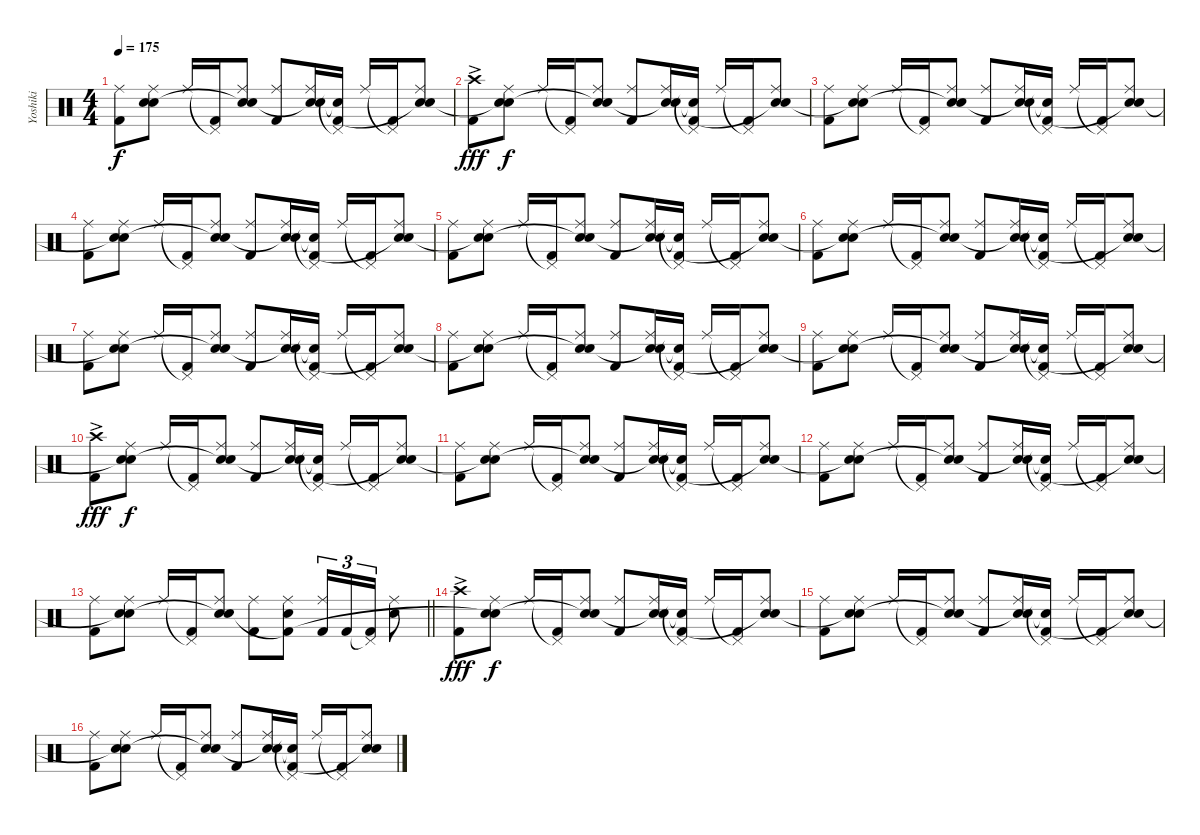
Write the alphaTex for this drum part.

\track ("Yoshiki" "Yoshiki") {instrument percussion}
\staff {score}
\articulation defaults
\ts (4 4)
\tempo 175
\clef neutral
\ks c
("Ride (middle)" "Kick (hit) 2").8{dy f} ("Ride (middle)" "Snare (hit) 2" "Snare (hit)"{t}).8 "Ride (middle)".16 ("Pedal Hi-Hat (hit)"{t} "Kick (hit) 2").16 ("Ride (middle)" "Snare (hit) 2" "Snare (hit)"{t}).8 ("Ride (middle)" "Kick (hit) 2").8 ("Ride (middle)" "Snare (hit) 2" "Snare (hit)"{t}).16 ("Pedal Hi-Hat (hit)"{t} "Snare (hit) 2"{t} "Kick (hit) 2").16 "Ride (middle)".16 ("Pedal Hi-Hat (hit)"{t} "Kick (hit) 2").16 ("Ride (middle)" "Snare (hit) 2" "Snare (hit)"{t}).8 |
("Crash high (hit)"{ac} "Kick (hit) 2"{ac}).8{dy fff} ("Ride (middle)" "Snare (hit) 2" "Snare (hit)"{t}).8{dy f} "Ride (middle)".16 ("Pedal Hi-Hat (hit)"{t} "Kick (hit) 2").16 ("Ride (middle)" "Snare (hit) 2" "Snare (hit)"{t}).8 ("Ride (middle)" "Kick (hit) 2").8 ("Ride (middle)" "Snare (hit) 2" "Snare (hit)"{t}).16 ("Pedal Hi-Hat (hit)"{t} "Snare (hit) 2"{t} "Kick (hit) 2").16 "Ride (middle)".16 ("Pedal Hi-Hat (hit)"{t} "Kick (hit) 2").16 ("Ride (middle)" "Snare (hit) 2" "Snare (hit)"{t}).8 |
("Ride (middle)" "Kick (hit) 2").8 ("Ride (middle)" "Snare (hit) 2" "Snare (hit)"{t}).8 "Ride (middle)".16 ("Pedal Hi-Hat (hit)"{t} "Kick (hit) 2").16 ("Ride (middle)" "Snare (hit) 2" "Snare (hit)"{t}).8 ("Ride (middle)" "Kick (hit) 2").8 ("Ride (middle)" "Snare (hit) 2" "Snare (hit)"{t}).16 ("Pedal Hi-Hat (hit)"{t} "Snare (hit) 2"{t} "Kick (hit) 2").16 "Ride (middle)".16 ("Pedal Hi-Hat (hit)"{t} "Kick (hit) 2").16 ("Ride (middle)" "Snare (hit) 2" "Snare (hit)"{t}).8 |
("Ride (middle)" "Kick (hit) 2").8 ("Ride (middle)" "Snare (hit) 2" "Snare (hit)"{t}).8 "Ride (middle)".16 ("Pedal Hi-Hat (hit)"{t} "Kick (hit) 2").16 ("Ride (middle)" "Snare (hit) 2" "Snare (hit)"{t}).8 ("Ride (middle)" "Kick (hit) 2").8 ("Ride (middle)" "Snare (hit) 2" "Snare (hit)"{t}).16 ("Pedal Hi-Hat (hit)"{t} "Snare (hit) 2"{t} "Kick (hit) 2").16 "Ride (middle)".16 ("Pedal Hi-Hat (hit)"{t} "Kick (hit) 2").16 ("Ride (middle)" "Snare (hit) 2" "Snare (hit)"{t}).8 |
("Ride (middle)" "Kick (hit) 2").8 ("Ride (middle)" "Snare (hit) 2" "Snare (hit)"{t}).8 "Ride (middle)".16 ("Pedal Hi-Hat (hit)"{t} "Kick (hit) 2").16 ("Ride (middle)" "Snare (hit) 2" "Snare (hit)"{t}).8 ("Ride (middle)" "Kick (hit) 2").8 ("Ride (middle)" "Snare (hit) 2" "Snare (hit)"{t}).16 ("Pedal Hi-Hat (hit)"{t} "Snare (hit) 2"{t} "Kick (hit) 2").16 "Ride (middle)".16 ("Pedal Hi-Hat (hit)"{t} "Kick (hit) 2").16 ("Ride (middle)" "Snare (hit) 2" "Snare (hit)"{t}).8 |
("Ride (middle)" "Kick (hit) 2").8 ("Ride (middle)" "Snare (hit) 2" "Snare (hit)"{t}).8 "Ride (middle)".16 ("Pedal Hi-Hat (hit)"{t} "Kick (hit) 2").16 ("Ride (middle)" "Snare (hit) 2" "Snare (hit)"{t}).8 ("Ride (middle)" "Kick (hit) 2").8 ("Ride (middle)" "Snare (hit) 2" "Snare (hit)"{t}).16 ("Pedal Hi-Hat (hit)"{t} "Snare (hit) 2"{t} "Kick (hit) 2").16 "Ride (middle)".16 ("Pedal Hi-Hat (hit)"{t} "Kick (hit) 2").16 ("Ride (middle)" "Snare (hit) 2" "Snare (hit)"{t}).8 |
("Ride (middle)" "Kick (hit) 2").8 ("Ride (middle)" "Snare (hit) 2" "Snare (hit)"{t}).8 "Ride (middle)".16 ("Pedal Hi-Hat (hit)"{t} "Kick (hit) 2").16 ("Ride (middle)" "Snare (hit) 2" "Snare (hit)"{t}).8 ("Ride (middle)" "Kick (hit) 2").8 ("Ride (middle)" "Snare (hit) 2" "Snare (hit)"{t}).16 ("Pedal Hi-Hat (hit)"{t} "Snare (hit) 2"{t} "Kick (hit) 2").16 "Ride (middle)".16 ("Pedal Hi-Hat (hit)"{t} "Kick (hit) 2").16 ("Ride (middle)" "Snare (hit) 2" "Snare (hit)"{t}).8 |
("Ride (middle)" "Kick (hit) 2").8 ("Ride (middle)" "Snare (hit) 2" "Snare (hit)"{t}).8 "Ride (middle)".16 ("Pedal Hi-Hat (hit)"{t} "Kick (hit) 2").16 ("Ride (middle)" "Snare (hit) 2" "Snare (hit)"{t}).8 ("Ride (middle)" "Kick (hit) 2").8 ("Ride (middle)" "Snare (hit) 2" "Snare (hit)"{t}).16 ("Pedal Hi-Hat (hit)"{t} "Snare (hit) 2"{t} "Kick (hit) 2").16 "Ride (middle)".16 ("Pedal Hi-Hat (hit)"{t} "Kick (hit) 2").16 ("Ride (middle)" "Snare (hit) 2" "Snare (hit)"{t}).8 |
("Ride (middle)" "Kick (hit) 2").8 ("Ride (middle)" "Snare (hit) 2" "Snare (hit)"{t}).8 "Ride (middle)".16 ("Pedal Hi-Hat (hit)"{t} "Kick (hit) 2").16 ("Ride (middle)" "Snare (hit) 2" "Snare (hit)"{t}).8 ("Ride (middle)" "Kick (hit) 2").8 ("Ride (middle)" "Snare (hit) 2" "Snare (hit)"{t}).16 ("Pedal Hi-Hat (hit)"{t} "Snare (hit) 2"{t} "Kick (hit) 2").16 "Ride (middle)".16 ("Pedal Hi-Hat (hit)"{t} "Kick (hit) 2").16 ("Ride (middle)" "Snare (hit) 2" "Snare (hit)"{t}).8 |
("Crash high (hit)"{ac} "Kick (hit) 2"{ac}).8{dy fff} ("Ride (middle)" "Snare (hit) 2" "Snare (hit)"{t}).8{dy f} "Ride (middle)".16 ("Pedal Hi-Hat (hit)"{t} "Kick (hit) 2").16 ("Ride (middle)" "Snare (hit) 2" "Snare (hit)"{t}).8 ("Ride (middle)" "Kick (hit) 2").8 ("Ride (middle)" "Snare (hit) 2" "Snare (hit)"{t}).16 ("Pedal Hi-Hat (hit)"{t} "Snare (hit) 2"{t} "Kick (hit) 2").16 "Ride (middle)".16 ("Pedal Hi-Hat (hit)"{t} "Kick (hit) 2").16 ("Ride (middle)" "Snare (hit) 2" "Snare (hit)"{t}).8 |
("Ride (middle)" "Kick (hit) 2").8 ("Ride (middle)" "Snare (hit) 2" "Snare (hit)"{t}).8 "Ride (middle)".16 ("Pedal Hi-Hat (hit)"{t} "Kick (hit) 2").16 ("Ride (middle)" "Snare (hit) 2" "Snare (hit)"{t}).8 ("Ride (middle)" "Kick (hit) 2").8 ("Ride (middle)" "Snare (hit) 2" "Snare (hit)"{t}).16 ("Pedal Hi-Hat (hit)"{t} "Snare (hit) 2"{t} "Kick (hit) 2").16 "Ride (middle)".16 ("Pedal Hi-Hat (hit)"{t} "Kick (hit) 2").16 ("Ride (middle)" "Snare (hit) 2" "Snare (hit)"{t}).8 |
("Ride (middle)" "Kick (hit) 2").8 ("Ride (middle)" "Snare (hit) 2" "Snare (hit)"{t}).8 "Ride (middle)".16 ("Pedal Hi-Hat (hit)"{t} "Kick (hit) 2").16 ("Ride (middle)" "Snare (hit) 2" "Snare (hit)"{t}).8 ("Ride (middle)" "Kick (hit) 2").8 ("Ride (middle)" "Snare (hit) 2" "Snare (hit)"{t}).16 ("Pedal Hi-Hat (hit)"{t} "Snare (hit) 2"{t} "Kick (hit) 2").16 "Ride (middle)".16 ("Pedal Hi-Hat (hit)"{t} "Kick (hit) 2").16 ("Ride (middle)" "Snare (hit) 2" "Snare (hit)"{t}).8 |
\barLineRight lightlight
("Ride (middle)" "Kick (hit) 2").8 ("Ride (middle)" "Snare (hit) 2" "Snare (hit)"{t}).8 "Ride (middle)".16 ("Pedal Hi-Hat (hit)"{t} "Kick (hit) 2").16 ("Ride (middle)" "Snare (hit) 2" "Snare (hit)"{t}).8 ("Ride (middle)" "Kick (hit) 2").8 ("Ride (middle)" "Snare (hit) 2" "Kick (hit) 2"{t}).8 ("Ride (middle)" "Kick (hit) 2").16{tu (3 2)} "Kick (hit) 2".16{tu (3 2)} ("Pedal Hi-Hat (hit)"{t} "Kick (hit) 2").16{tu (3 2)} ("Ride (middle)" "Snare (hit) 2").8 |
("Crash high (hit)"{ac} "Kick (hit) 2"{ac}).8{dy fff} ("Ride (middle)" "Snare (hit) 2" "Snare (hit)"{t}).8{dy f} "Ride (middle)".16 ("Pedal Hi-Hat (hit)"{t} "Kick (hit) 2").16 ("Ride (middle)" "Snare (hit) 2" "Snare (hit)"{t}).8 ("Ride (middle)" "Kick (hit) 2").8 ("Ride (middle)" "Snare (hit) 2" "Snare (hit)"{t}).16 ("Pedal Hi-Hat (hit)"{t} "Snare (hit) 2"{t} "Kick (hit) 2").16 "Ride (middle)".16 ("Pedal Hi-Hat (hit)"{t} "Kick (hit) 2").16 ("Ride (middle)" "Snare (hit) 2" "Snare (hit)"{t}).8 |
("Ride (middle)" "Kick (hit) 2").8 ("Ride (middle)" "Snare (hit) 2" "Snare (hit)"{t}).8 "Ride (middle)".16 ("Pedal Hi-Hat (hit)"{t} "Kick (hit) 2").16 ("Ride (middle)" "Snare (hit) 2" "Snare (hit)"{t}).8 ("Ride (middle)" "Kick (hit) 2").8 ("Ride (middle)" "Snare (hit) 2" "Snare (hit)"{t}).16 ("Pedal Hi-Hat (hit)"{t} "Snare (hit) 2"{t} "Kick (hit) 2").16 "Ride (middle)".16 ("Pedal Hi-Hat (hit)"{t} "Kick (hit) 2").16 ("Ride (middle)" "Snare (hit) 2" "Snare (hit)"{t}).8 |
("Ride (middle)" "Kick (hit) 2").8 ("Ride (middle)" "Snare (hit) 2" "Snare (hit)"{t}).8 "Ride (middle)".16 ("Pedal Hi-Hat (hit)"{t} "Kick (hit) 2").16 ("Ride (middle)" "Snare (hit) 2" "Snare (hit)"{t}).8 ("Ride (middle)" "Kick (hit) 2").8 ("Ride (middle)" "Snare (hit) 2" "Snare (hit)"{t}).16 ("Pedal Hi-Hat (hit)"{t} "Snare (hit) 2"{t} "Kick (hit) 2").16 "Ride (middle)".16 ("Pedal Hi-Hat (hit)"{t} "Kick (hit) 2").16 ("Ride (middle)" "Snare (hit) 2" "Snare (hit)"{t}).8
